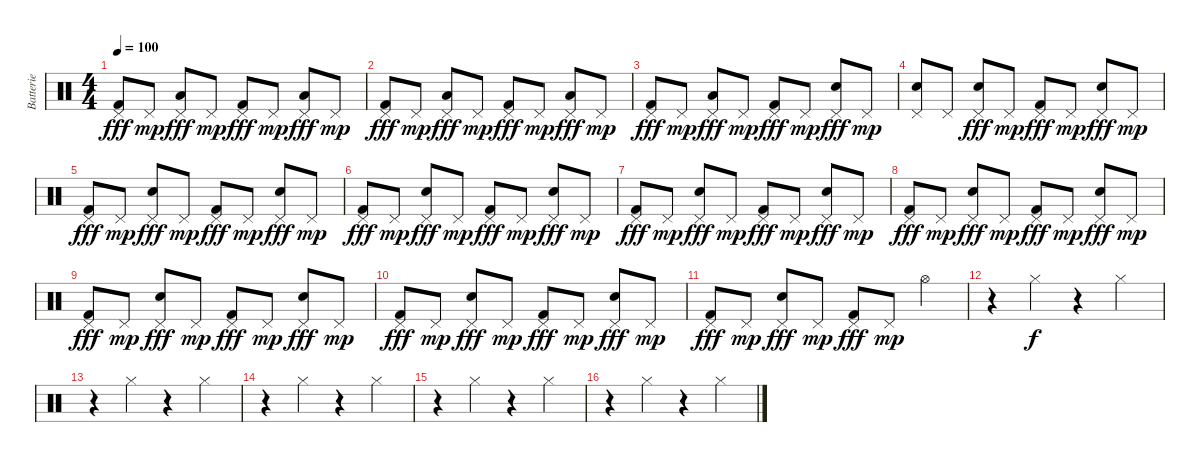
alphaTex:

\track ("Batterie" "Batterie") {instrument percussion}
\staff {score}
\articulation defaults
\ts (4 4)
\tempo 100
\clef neutral
\ks c
("Pedal Hi-Hat (hit)" "Kick (hit) 2").8{dy fff} "Pedal Hi-Hat (hit)".8{dy mp} ("Pedal Hi-Hat (hit)" "Low Tom (hit)").8{dy fff} "Pedal Hi-Hat (hit)".8{dy mp} ("Pedal Hi-Hat (hit)" "Kick (hit) 2").8{dy fff} "Pedal Hi-Hat (hit)".8{dy mp} ("Pedal Hi-Hat (hit)" "Low Tom (hit)").8{dy fff} "Pedal Hi-Hat (hit)".8{dy mp} |
("Pedal Hi-Hat (hit)" "Kick (hit) 2").8{dy fff} "Pedal Hi-Hat (hit)".8{dy mp} ("Pedal Hi-Hat (hit)" "Low Tom (hit)").8{dy fff} "Pedal Hi-Hat (hit)".8{dy mp} ("Pedal Hi-Hat (hit)" "Kick (hit) 2").8{dy fff} "Pedal Hi-Hat (hit)".8{dy mp} ("Pedal Hi-Hat (hit)" "Low Tom (hit)").8{dy fff} "Pedal Hi-Hat (hit)".8{dy mp} |
("Pedal Hi-Hat (hit)" "Kick (hit) 2").8{dy fff} "Pedal Hi-Hat (hit)".8{dy mp} ("Pedal Hi-Hat (hit)" "Low Tom (hit)").8{dy fff} "Pedal Hi-Hat (hit)".8{dy mp} ("Pedal Hi-Hat (hit)" "Kick (hit) 2").8{dy fff} "Pedal Hi-Hat (hit)".8{dy mp} ("Pedal Hi-Hat (hit)" "Electric Snare (hit)").8{dy fff} "Pedal Hi-Hat (hit)".8{dy mp} |
("Pedal Hi-Hat (hit)" "Electric Snare (hit)").8 "Pedal Hi-Hat (hit)".8 ("Pedal Hi-Hat (hit)" "Electric Snare (hit)").8{dy fff} "Pedal Hi-Hat (hit)".8{dy mp} ("Pedal Hi-Hat (hit)" "Kick (hit) 2").8{dy fff} "Pedal Hi-Hat (hit)".8{dy mp} ("Pedal Hi-Hat (hit)" "Electric Snare (hit)").8{dy fff} "Pedal Hi-Hat (hit)".8{dy mp} |
("Pedal Hi-Hat (hit)" "Kick (hit) 2").8{dy fff} "Pedal Hi-Hat (hit)".8{dy mp} ("Pedal Hi-Hat (hit)" "Electric Snare (hit)").8{dy fff} "Pedal Hi-Hat (hit)".8{dy mp} ("Pedal Hi-Hat (hit)" "Kick (hit) 2").8{dy fff} "Pedal Hi-Hat (hit)".8{dy mp} ("Pedal Hi-Hat (hit)" "Electric Snare (hit)").8{dy fff} "Pedal Hi-Hat (hit)".8{dy mp} |
("Pedal Hi-Hat (hit)" "Kick (hit) 2").8{dy fff} "Pedal Hi-Hat (hit)".8{dy mp} ("Pedal Hi-Hat (hit)" "Electric Snare (hit)").8{dy fff} "Pedal Hi-Hat (hit)".8{dy mp} ("Pedal Hi-Hat (hit)" "Kick (hit) 2").8{dy fff} "Pedal Hi-Hat (hit)".8{dy mp} ("Pedal Hi-Hat (hit)" "Electric Snare (hit)").8{dy fff} "Pedal Hi-Hat (hit)".8{dy mp} |
("Pedal Hi-Hat (hit)" "Kick (hit) 2").8{dy fff} "Pedal Hi-Hat (hit)".8{dy mp} ("Pedal Hi-Hat (hit)" "Electric Snare (hit)").8{dy fff} "Pedal Hi-Hat (hit)".8{dy mp} ("Pedal Hi-Hat (hit)" "Kick (hit) 2").8{dy fff} "Pedal Hi-Hat (hit)".8{dy mp} ("Pedal Hi-Hat (hit)" "Electric Snare (hit)").8{dy fff} "Pedal Hi-Hat (hit)".8{dy mp} |
("Pedal Hi-Hat (hit)" "Kick (hit) 2").8{dy fff} "Pedal Hi-Hat (hit)".8{dy mp} ("Pedal Hi-Hat (hit)" "Electric Snare (hit)").8{dy fff} "Pedal Hi-Hat (hit)".8{dy mp} ("Pedal Hi-Hat (hit)" "Kick (hit) 2").8{dy fff} "Pedal Hi-Hat (hit)".8{dy mp} ("Pedal Hi-Hat (hit)" "Electric Snare (hit)").8{dy fff} "Pedal Hi-Hat (hit)".8{dy mp} |
("Pedal Hi-Hat (hit)" "Kick (hit) 2").8{dy fff} "Pedal Hi-Hat (hit)".8{dy mp} ("Pedal Hi-Hat (hit)" "Electric Snare (hit)").8{dy fff} "Pedal Hi-Hat (hit)".8{dy mp} ("Pedal Hi-Hat (hit)" "Kick (hit) 2").8{dy fff} "Pedal Hi-Hat (hit)".8{dy mp} ("Pedal Hi-Hat (hit)" "Electric Snare (hit)").8{dy fff} "Pedal Hi-Hat (hit)".8{dy mp} |
("Pedal Hi-Hat (hit)" "Kick (hit) 2").8{dy fff} "Pedal Hi-Hat (hit)".8{dy mp} ("Pedal Hi-Hat (hit)" "Electric Snare (hit)").8{dy fff} "Pedal Hi-Hat (hit)".8{dy mp} ("Pedal Hi-Hat (hit)" "Kick (hit) 2").8{dy fff} "Pedal Hi-Hat (hit)".8{dy mp} ("Pedal Hi-Hat (hit)" "Electric Snare (hit)").8{dy fff} "Pedal Hi-Hat (hit)".8{dy mp} |
("Pedal Hi-Hat (hit)" "Kick (hit) 2").8{dy fff} "Pedal Hi-Hat (hit)".8{dy mp} ("Pedal Hi-Hat (hit)" "Electric Snare (hit)").8{dy fff} "Pedal Hi-Hat (hit)".8{dy mp} ("Pedal Hi-Hat (hit)" "Kick (hit) 2").8{dy fff} "Pedal Hi-Hat (hit)".8{dy mp} "Hi-Hat (open)".4 |
r.4 "Hi-Hat (closed)".4{dy f} r.4 "Hi-Hat (closed)".4 |
r.4 "Hi-Hat (closed)".4 r.4 "Hi-Hat (closed)".4 |
r.4 "Hi-Hat (closed)".4 r.4 "Hi-Hat (closed)".4 |
r.4 "Hi-Hat (closed)".4 r.4 "Hi-Hat (closed)".4 |
r.4 "Hi-Hat (closed)".4 r.4 "Hi-Hat (closed)".4
